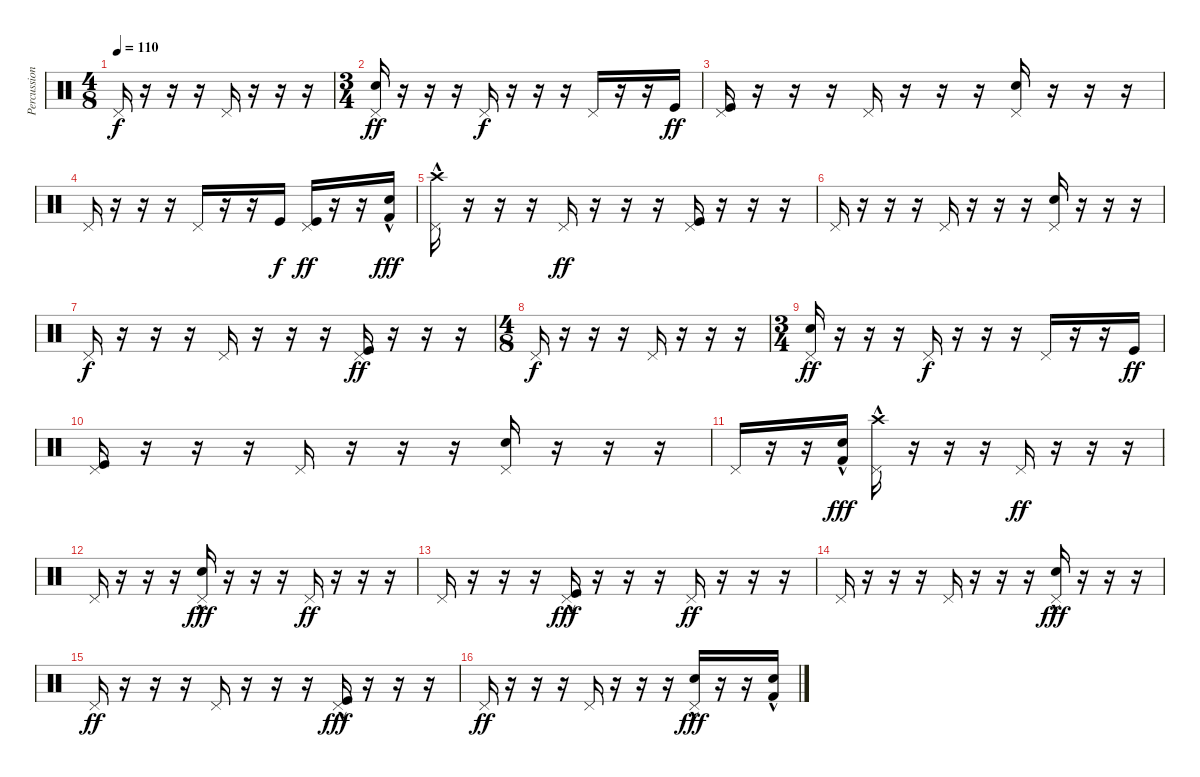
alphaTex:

\track ("Percussion" "Percussion") {instrument percussion}
\staff {score}
\articulation defaults
\ts (4 8)
\tempo 110
\clef neutral
\ks c "Pedal Hi-Hat (hit)".16{dy f}
r.16 r.16 r.16 "Pedal Hi-Hat (hit)".16 r.16 r.16 r.16 |
\ts (3 4)
("Pedal Hi-Hat (hit)" "Electric Snare (hit)").16{dy ff} r.16 r.16 r.16 "Pedal Hi-Hat (hit)".16{dy f} r.16 r.16 r.16 "Pedal Hi-Hat (hit)".16 r.16 r.16 "Kick (hit)".16{dy ff} |
("Pedal Hi-Hat (hit)" "Kick (hit)").16 r.16 r.16 r.16 "Pedal Hi-Hat (hit)".16 r.16 r.16 r.16 ("Pedal Hi-Hat (hit)" "Electric Snare (hit)").16 r.16 r.16 r.16 |
"Pedal Hi-Hat (hit)".16 r.16 r.16 r.16 "Pedal Hi-Hat (hit)".16 r.16 r.16 "Kick (hit)".16{dy f} ("Pedal Hi-Hat (hit)" "Kick (hit)").16{dy ff} r.16 r.16 ("Electric Snare (hit)"{hac} "Kick (hit) 2"{hac}).16{dy fff} |
("Pedal Hi-Hat (hit)" "Crash high (hit)"{hac}).16 r.16 r.16 r.16 "Pedal Hi-Hat (hit)".16{dy ff} r.16 r.16 r.16 ("Pedal Hi-Hat (hit)" "Kick (hit)").16 r.16 r.16 r.16 |
"Pedal Hi-Hat (hit)".16 r.16 r.16 r.16 "Pedal Hi-Hat (hit)".16 r.16 r.16 r.16 ("Pedal Hi-Hat (hit)" "Electric Snare (hit)").16 r.16 r.16 r.16 |
"Pedal Hi-Hat (hit)".16{dy f} r.16 r.16 r.16 "Pedal Hi-Hat (hit)".16 r.16 r.16 r.16 ("Pedal Hi-Hat (hit)" "Kick (hit)").16{dy ff} r.16 r.16 r.16 |
\ts (4 8)
"Pedal Hi-Hat (hit)".16{dy f} r.16 r.16 r.16 "Pedal Hi-Hat (hit)".16 r.16 r.16 r.16 |
\ts (3 4)
("Pedal Hi-Hat (hit)" "Electric Snare (hit)").16{dy ff} r.16 r.16 r.16 "Pedal Hi-Hat (hit)".16{dy f} r.16 r.16 r.16 "Pedal Hi-Hat (hit)".16 r.16 r.16 "Kick (hit)".16{dy ff} |
("Pedal Hi-Hat (hit)" "Kick (hit)").16 r.16 r.16 r.16 "Pedal Hi-Hat (hit)".16 r.16 r.16 r.16 ("Pedal Hi-Hat (hit)" "Electric Snare (hit)").16 r.16 r.16 r.16 |
"Pedal Hi-Hat (hit)".16 r.16 r.16 ("Electric Snare (hit)"{hac} "Kick (hit) 2"{hac}).16{dy fff} ("Pedal Hi-Hat (hit)" "Crash high (hit)"{hac}).16 r.16 r.16 r.16 "Pedal Hi-Hat (hit)".16{dy ff} r.16 r.16 r.16 |
"Pedal Hi-Hat (hit)".16 r.16 r.16 r.16 ("Pedal Hi-Hat (hit)" "Electric Snare (hit)"{hac}).16{dy fff} r.16 r.16 r.16 "Pedal Hi-Hat (hit)".16{dy ff} r.16 r.16 r.16 |
"Pedal Hi-Hat (hit)".16 r.16 r.16 r.16 ("Pedal Hi-Hat (hit)" "Kick (hit)"{hac}).16{dy fff} r.16 r.16 r.16 "Pedal Hi-Hat (hit)".16{dy ff} r.16 r.16 r.16 |
"Pedal Hi-Hat (hit)".16 r.16 r.16 r.16 "Pedal Hi-Hat (hit)".16 r.16 r.16 r.16 ("Pedal Hi-Hat (hit)" "Electric Snare (hit)"{hac}).16{dy fff} r.16 r.16 r.16 |
"Pedal Hi-Hat (hit)".16{dy ff} r.16 r.16 r.16 "Pedal Hi-Hat (hit)".16 r.16 r.16 r.16 ("Pedal Hi-Hat (hit)" "Kick (hit)"{hac}).16{dy fff} r.16 r.16 r.16 |
"Pedal Hi-Hat (hit)".16{dy ff} r.16 r.16 r.16 "Pedal Hi-Hat (hit)".16 r.16 r.16 r.16 ("Pedal Hi-Hat (hit)" "Electric Snare (hit)"{hac}).16{dy fff} r.16 r.16 ("Electric Snare (hit)"{hac} "Kick (hit) 2"{hac}).16
